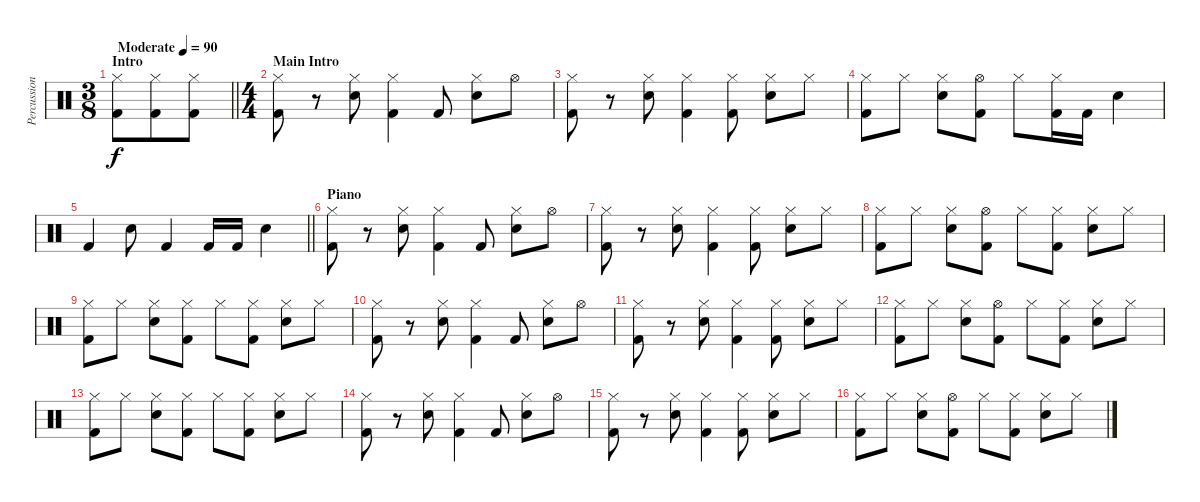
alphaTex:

\track ("Percussion" "Percussion") {instrument percussion}
\staff {score}
\articulation defaults
\ts (3 8)
\section ("" "Intro")
\tempo (90 "Moderate")
\clef neutral
\barLineRight lightlight
\ks c
("Hi-Hat (closed)" "Kick (hit) 2").8{dy f} ("Hi-Hat (closed)" "Kick (hit) 2").8 ("Hi-Hat (closed)" "Kick (hit) 2").8 |
\ts (4 4)
\section ("" "Main Intro")
("Hi-Hat (closed)" "Kick (hit) 2").8 r.8 ("Hi-Hat (closed)" "Snare (hit) 2").8 ("Hi-Hat (closed)" "Kick (hit) 2").4 "Kick (hit) 2".8 ("Hi-Hat (closed)" "Snare (hit) 2").8 "Hi-Hat (open)".8 |
("Hi-Hat (closed)" "Kick (hit) 2").8 r.8 ("Hi-Hat (closed)" "Snare (hit) 2").8 ("Hi-Hat (closed)" "Kick (hit) 2").4 ("Hi-Hat (closed)" "Kick (hit) 2").8 ("Hi-Hat (closed)" "Snare (hit) 2").8 "Hi-Hat (closed)".8 |
("Hi-Hat (closed)" "Kick (hit) 2").8 "Hi-Hat (closed)".8 ("Hi-Hat (closed)" "Snare (hit) 2").8 ("Hi-Hat (open)" "Kick (hit) 2").8 "Hi-Hat (closed)".8 ("Hi-Hat (closed)" "Kick (hit) 2").16 "Kick (hit) 2".16 "Snare (hit) 2".4 |
\barLineRight lightlight "Kick (hit) 2".4 "Snare (hit) 2".8 "Kick (hit) 2".4 "Kick (hit) 2".16 "Kick (hit) 2".16 "Snare (hit) 2".4
|
\section ("" "Piano")
("Hi-Hat (closed)" "Kick (hit) 2").8 r.8 ("Hi-Hat (closed)" "Snare (hit) 2").8 ("Hi-Hat (closed)" "Kick (hit) 2").4 "Kick (hit) 2".8 ("Hi-Hat (closed)" "Snare (hit) 2").8 "Hi-Hat (open)".8 |
("Hi-Hat (closed)" "Kick (hit) 2").8 r.8 ("Hi-Hat (closed)" "Snare (hit) 2").8 ("Hi-Hat (closed)" "Kick (hit) 2").4 ("Hi-Hat (closed)" "Kick (hit) 2").8 ("Hi-Hat (closed)" "Snare (hit) 2").8 "Hi-Hat (closed)".8 |
("Hi-Hat (closed)" "Kick (hit) 2").8 "Hi-Hat (closed)".8 ("Hi-Hat (closed)" "Snare (hit) 2").8 ("Hi-Hat (open)" "Kick (hit) 2").8 "Hi-Hat (closed)".8 ("Hi-Hat (closed)" "Kick (hit) 2").8 ("Hi-Hat (closed)" "Snare (hit) 2").8 "Hi-Hat (closed)".8 |
("Hi-Hat (closed)" "Kick (hit) 2").8 "Hi-Hat (closed)".8 ("Hi-Hat (closed)" "Snare (hit) 2").8 ("Hi-Hat (closed)" "Kick (hit) 2").8 "Hi-Hat (closed)".8 ("Hi-Hat (closed)" "Kick (hit) 2").8 ("Hi-Hat (closed)" "Snare (hit) 2").8 "Hi-Hat (closed)".8 |
("Hi-Hat (closed)" "Kick (hit) 2").8 r.8 ("Hi-Hat (closed)" "Snare (hit) 2").8 ("Hi-Hat (closed)" "Kick (hit) 2").4 "Kick (hit) 2".8 ("Hi-Hat (closed)" "Snare (hit) 2").8 "Hi-Hat (open)".8 |
("Hi-Hat (closed)" "Kick (hit) 2").8 r.8 ("Hi-Hat (closed)" "Snare (hit) 2").8 ("Hi-Hat (closed)" "Kick (hit) 2").4 ("Hi-Hat (closed)" "Kick (hit) 2").8 ("Hi-Hat (closed)" "Snare (hit) 2").8 "Hi-Hat (closed)".8 |
("Hi-Hat (closed)" "Kick (hit) 2").8 "Hi-Hat (closed)".8 ("Hi-Hat (closed)" "Snare (hit) 2").8 ("Hi-Hat (open)" "Kick (hit) 2").8 "Hi-Hat (closed)".8 ("Hi-Hat (closed)" "Kick (hit) 2").8 ("Hi-Hat (closed)" "Snare (hit) 2").8 "Hi-Hat (closed)".8 |
("Hi-Hat (closed)" "Kick (hit) 2").8 "Hi-Hat (closed)".8 ("Hi-Hat (closed)" "Snare (hit) 2").8 ("Hi-Hat (closed)" "Kick (hit) 2").8 "Hi-Hat (closed)".8 ("Hi-Hat (closed)" "Kick (hit) 2").8 ("Hi-Hat (closed)" "Snare (hit) 2").8 "Hi-Hat (closed)".8 |
("Hi-Hat (closed)" "Kick (hit) 2").8 r.8 ("Hi-Hat (closed)" "Snare (hit) 2").8 ("Hi-Hat (closed)" "Kick (hit) 2").4 "Kick (hit) 2".8 ("Hi-Hat (closed)" "Snare (hit) 2").8 "Hi-Hat (open)".8 |
("Hi-Hat (closed)" "Kick (hit) 2").8 r.8 ("Hi-Hat (closed)" "Snare (hit) 2").8 ("Hi-Hat (closed)" "Kick (hit) 2").4 ("Hi-Hat (closed)" "Kick (hit) 2").8 ("Hi-Hat (closed)" "Snare (hit) 2").8 "Hi-Hat (closed)".8 |
("Hi-Hat (closed)" "Kick (hit) 2").8 "Hi-Hat (closed)".8 ("Hi-Hat (closed)" "Snare (hit) 2").8 ("Hi-Hat (open)" "Kick (hit) 2").8 "Hi-Hat (closed)".8 ("Hi-Hat (closed)" "Kick (hit) 2").8 ("Hi-Hat (closed)" "Snare (hit) 2").8 "Hi-Hat (closed)".8
